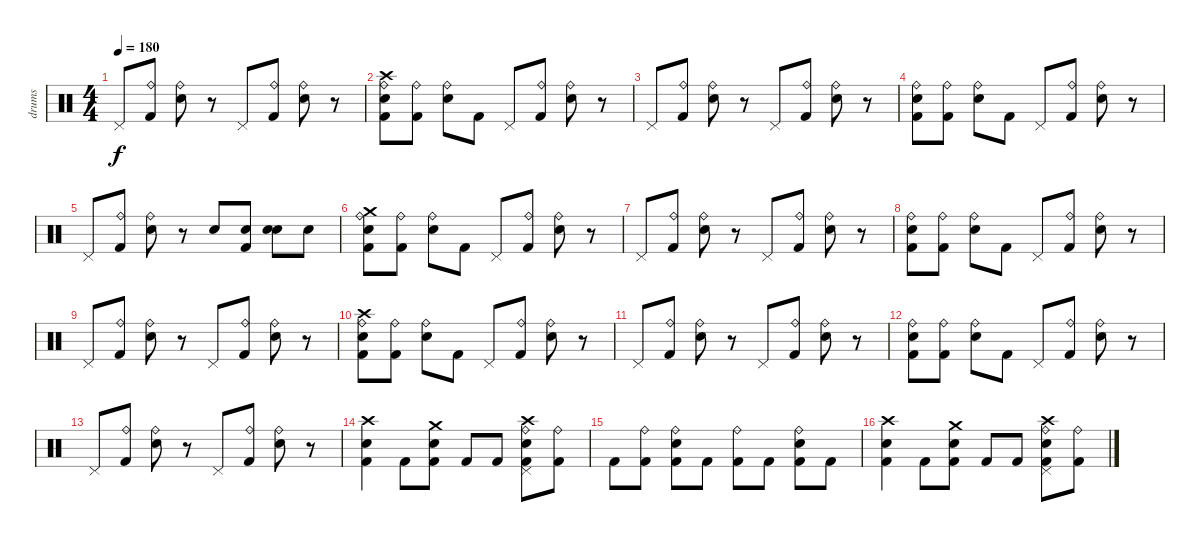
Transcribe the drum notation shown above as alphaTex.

\track ("drums" "drums") {instrument percussion}
\staff {score}
\articulation defaults
\ts (4 4)
\tempo 180
\clef neutral
\ks c "Pedal Hi-Hat (hit)".8{dy f}
("Ride (bell)" "Kick (hit) 2").8 ("Ride (bell)" "Electric Snare (hit)").8 r.8 "Pedal Hi-Hat (hit)".8 ("Ride (bell)" "Kick (hit) 2").8 ("Ride (bell)" "Electric Snare (hit)").8 r.8 |
("Crash high (hit)" "Ride (bell)" "Electric Snare (hit)" "Kick (hit) 2").8 ("Ride (bell)" "Kick (hit) 2").8 ("Ride (bell)" "Electric Snare (hit)").8 "Kick (hit) 2".8 "Pedal Hi-Hat (hit)".8 ("Ride (bell)" "Kick (hit) 2").8 ("Ride (bell)" "Electric Snare (hit)").8 r.8 |
"Pedal Hi-Hat (hit)".8 ("Ride (bell)" "Kick (hit) 2").8 ("Ride (bell)" "Electric Snare (hit)").8 r.8 "Pedal Hi-Hat (hit)".8 ("Ride (bell)" "Kick (hit) 2").8 ("Ride (bell)" "Electric Snare (hit)").8 r.8 |
("Ride (bell)" "Electric Snare (hit)" "Kick (hit) 2").8 ("Ride (bell)" "Kick (hit) 2").8 ("Ride (bell)" "Electric Snare (hit)").8 "Kick (hit) 2".8 "Pedal Hi-Hat (hit)".8 ("Ride (bell)" "Kick (hit) 2").8 ("Ride (bell)" "Electric Snare (hit)").8 r.8 |
"Pedal Hi-Hat (hit)".8 ("Ride (bell)" "Kick (hit) 2").8 ("Ride (bell)" "Electric Snare (hit)").8 r.8 "Electric Snare (hit)".8 ("Electric Snare (hit)" "Kick (hit) 2").8 ("Electric Snare (hit)" "Electric Snare (hit)").8 "Electric Snare (hit)".8 |
("Crash medium (hit)" "Ride (bell)" "Electric Snare (hit)" "Kick (hit) 2").8 ("Ride (bell)" "Kick (hit) 2").8 ("Ride (bell)" "Electric Snare (hit)").8 "Kick (hit) 2".8 "Pedal Hi-Hat (hit)".8 ("Ride (bell)" "Kick (hit) 2").8 ("Ride (bell)" "Electric Snare (hit)").8 r.8 |
"Pedal Hi-Hat (hit)".8 ("Ride (bell)" "Kick (hit) 2").8 ("Ride (bell)" "Electric Snare (hit)").8 r.8 "Pedal Hi-Hat (hit)".8 ("Ride (bell)" "Kick (hit) 2").8 ("Ride (bell)" "Electric Snare (hit)").8 r.8 |
("Ride (bell)" "Electric Snare (hit)" "Kick (hit) 2").8 ("Ride (bell)" "Kick (hit) 2").8 ("Ride (bell)" "Electric Snare (hit)").8 "Kick (hit) 2".8 "Pedal Hi-Hat (hit)".8 ("Ride (bell)" "Kick (hit) 2").8 ("Ride (bell)" "Electric Snare (hit)").8 r.8 |
"Pedal Hi-Hat (hit)".8 ("Ride (bell)" "Kick (hit) 2").8 ("Ride (bell)" "Electric Snare (hit)").8 r.8 "Pedal Hi-Hat (hit)".8 ("Ride (bell)" "Kick (hit) 2").8 ("Ride (bell)" "Electric Snare (hit)").8 r.8 |
("Crash high (hit)" "Ride (bell)" "Electric Snare (hit)" "Kick (hit) 2").8 ("Ride (bell)" "Kick (hit) 2").8 ("Ride (bell)" "Electric Snare (hit)").8 "Kick (hit) 2".8 "Pedal Hi-Hat (hit)".8 ("Ride (bell)" "Kick (hit) 2").8 ("Ride (bell)" "Electric Snare (hit)").8 r.8 |
"Pedal Hi-Hat (hit)".8 ("Ride (bell)" "Kick (hit) 2").8 ("Ride (bell)" "Electric Snare (hit)").8 r.8 "Pedal Hi-Hat (hit)".8 ("Ride (bell)" "Kick (hit) 2").8 ("Ride (bell)" "Electric Snare (hit)").8 r.8 |
("Ride (bell)" "Electric Snare (hit)" "Kick (hit) 2").8 ("Ride (bell)" "Kick (hit) 2").8 ("Ride (bell)" "Electric Snare (hit)").8 "Kick (hit) 2".8 "Pedal Hi-Hat (hit)".8 ("Ride (bell)" "Kick (hit) 2").8 ("Ride (bell)" "Electric Snare (hit)").8 r.8 |
"Pedal Hi-Hat (hit)".8 ("Ride (bell)" "Kick (hit) 2").8 ("Ride (bell)" "Electric Snare (hit)").8 r.8 "Pedal Hi-Hat (hit)".8 ("Ride (bell)" "Kick (hit) 2").8 ("Ride (bell)" "Electric Snare (hit)").8 r.8 |
("Crash high (hit)" "Electric Snare (hit)" "Kick (hit) 2").4 "Kick (hit) 2".8 ("Crash medium (hit)" "Electric Snare (hit)" "Kick (hit) 2").8 "Kick (hit) 2".8 "Kick (hit) 2".8 ("Ride (bell)" "Crash high (hit)" "Pedal Hi-Hat (hit)" "Electric Snare (hit)" "Kick (hit) 2").8 ("Ride (bell)" "Kick (hit) 2").8 |
"Kick (hit) 2".8 ("Ride (bell)" "Kick (hit) 2").8 ("Ride (bell)" "Electric Snare (hit)" "Kick (hit) 2").8 "Kick (hit) 2".8 ("Ride (bell)" "Kick (hit) 2").8 "Kick (hit) 2".8 ("Ride (bell)" "Electric Snare (hit)" "Kick (hit) 2").8 "Kick (hit) 2".8 |
("Crash high (hit)" "Electric Snare (hit)" "Kick (hit) 2").4 "Kick (hit) 2".8 ("Crash medium (hit)" "Electric Snare (hit)" "Kick (hit) 2").8 "Kick (hit) 2".8 "Kick (hit) 2".8 ("Ride (bell)" "Crash high (hit)" "Pedal Hi-Hat (hit)" "Electric Snare (hit)" "Kick (hit) 2").8 ("Ride (bell)" "Kick (hit) 2").8
